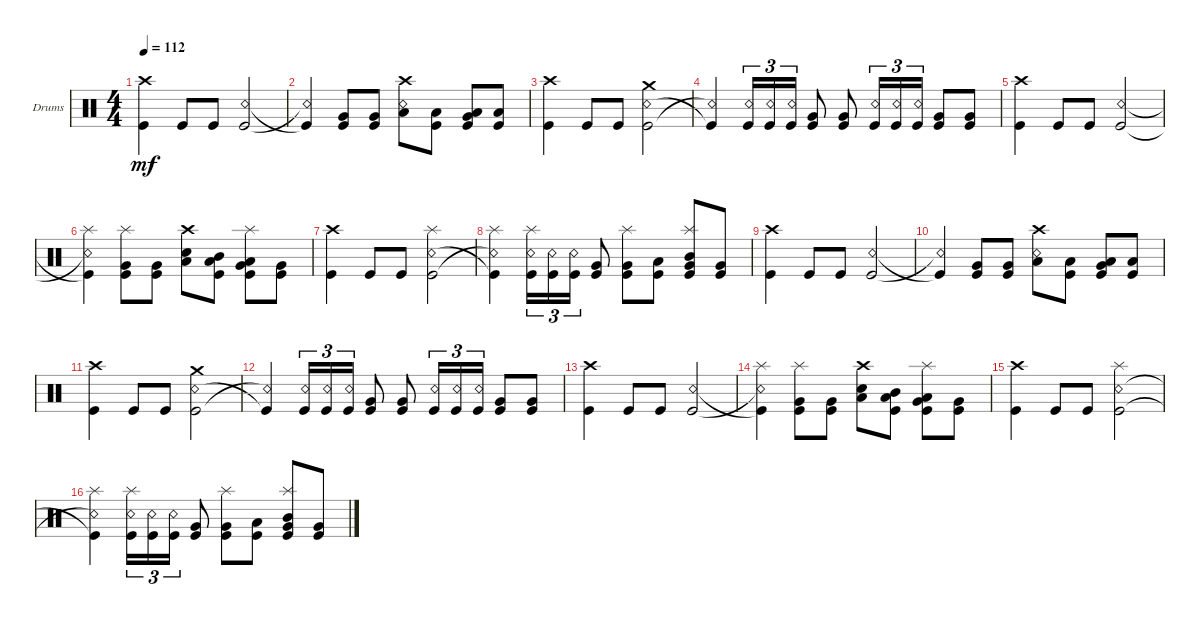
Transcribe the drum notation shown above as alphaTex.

\defaultSystemsLayout 4
\bracketExtendMode groupsimilarinstruments
\firstSystemTrackNameOrientation horizontal
\otherSystemsTrackNameOrientation horizontal
\track ("Drumkit" "Drums") {instrument percussion}
\staff {score}
\articulation defaults
\ts (4 4)
\tempo 112
\clef neutral
\ks c
("Kick (hit)" "Crash high (hit)").4{dy mf} "Kick (hit)".8 "Kick (hit)".8 ("Snare (rim shot)" "Kick (hit)").2 |
("Kick (hit)"{t} "Snare (rim shot)"{t}).4 ("Kick (hit)" "Very Low Tom (hit)").8 ("Kick (hit)" "Very Low Tom (hit)").8 ("Snare (rim shot)" "Crash high (hit)" "Low Tom (hit)").8 ("Kick (hit)" "Low Tom (hit)").8 ("Kick (hit)" "Very Low Tom (hit)" "Low Tom (hit)").8 ("Kick (hit)" "Low Tom (hit)").8 |
("Kick (hit)" "Crash high (hit)").4 "Kick (hit)".8 "Kick (hit)".8 ("Snare (rim shot)" "Kick (hit)" "Crash medium (hit)").2 |
("Kick (hit)"{t} "Snare (rim shot)"{t}).4 ("Snare (rim shot)" "Kick (hit)").16{tu (3 2)} ("Kick (hit)" "Snare (rim shot)").16{tu (3 2)} ("Kick (hit)" "Snare (rim shot)").16{tu (3 2)} ("Kick (hit)" "Very Low Tom (hit)").8 ("Kick (hit)" "Very Low Tom (hit)").8 ("Snare (rim shot)" "Kick (hit)").16{tu (3 2)} ("Snare (rim shot)" "Kick (hit)").16{tu (3 2)} ("Snare (rim shot)" "Kick (hit)").16{tu (3 2)} ("Kick (hit)" "Very Low Tom (hit)").8 ("Kick (hit)" "Very Low Tom (hit)").8 |
("Kick (hit)" "Crash high (hit)").4 "Kick (hit)".8 "Kick (hit)".8 ("Snare (rim shot)" "Kick (hit)").2 |
("Kick (hit)"{t} "Snare (rim shot)"{t} "Splash (hit)").4 ("Kick (hit)" "Very Low Tom (hit)" "Splash (hit)").8 ("Kick (hit)" "Very Low Tom (hit)").8 ("Snare (hit) 2" "Crash high (hit)" "Low Tom (hit)").8 ("Kick (hit)" "Mid Tom (hit)" "Low Tom (hit)").8 ("Kick (hit)" "Very Low Tom (hit)" "Low Tom (hit)" "Splash (hit)").8 ("Kick (hit)" "Very Low Tom (hit)").8 |
("Kick (hit)" "Crash high (hit)").4 "Kick (hit)".8 "Kick (hit)".8 ("Snare (rim shot)" "Kick (hit)" "Splash (hit)").2 |
("Kick (hit)"{t} "Snare (rim shot)"{t} "Splash (hit)").4 ("Snare (rim shot)" "Kick (hit)" "Splash (hit)").16{tu (3 2)} ("Kick (hit)" "Snare (rim shot)").16{tu (3 2)} ("Kick (hit)" "Snare (rim shot)").16{tu (3 2)} ("Kick (hit)" "Very Low Tom (hit)").8 ("Kick (hit)" "Very Low Tom (hit)" "Splash (hit)").8 ("Kick (hit)" "Low Tom (hit)").8 ("Kick (hit)" "Very Low Tom (hit)" "Mid Tom (hit)" "Splash (hit)").8 ("Kick (hit)" "Very Low Tom (hit)").8 |
("Kick (hit)" "Crash high (hit)").4 "Kick (hit)".8 "Kick (hit)".8 ("Snare (rim shot)" "Kick (hit)").2 |
("Kick (hit)"{t} "Snare (rim shot)"{t}).4 ("Kick (hit)" "Very Low Tom (hit)").8 ("Kick (hit)" "Very Low Tom (hit)").8 ("Snare (rim shot)" "Crash high (hit)" "Low Tom (hit)").8 ("Kick (hit)" "Low Tom (hit)").8 ("Kick (hit)" "Very Low Tom (hit)" "Low Tom (hit)").8 ("Kick (hit)" "Low Tom (hit)").8 |
("Kick (hit)" "Crash high (hit)").4 "Kick (hit)".8 "Kick (hit)".8 ("Snare (rim shot)" "Kick (hit)" "Crash medium (hit)").2 |
("Kick (hit)"{t} "Snare (rim shot)"{t}).4 ("Snare (rim shot)" "Kick (hit)").16{tu (3 2)} ("Kick (hit)" "Snare (rim shot)").16{tu (3 2)} ("Kick (hit)" "Snare (rim shot)").16{tu (3 2)} ("Kick (hit)" "Very Low Tom (hit)").8 ("Kick (hit)" "Very Low Tom (hit)").8 ("Snare (rim shot)" "Kick (hit)").16{tu (3 2)} ("Snare (rim shot)" "Kick (hit)").16{tu (3 2)} ("Snare (rim shot)" "Kick (hit)").16{tu (3 2)} ("Kick (hit)" "Very Low Tom (hit)").8 ("Kick (hit)" "Very Low Tom (hit)").8 |
("Kick (hit)" "Crash high (hit)").4 "Kick (hit)".8 "Kick (hit)".8 ("Snare (rim shot)" "Kick (hit)").2 |
("Kick (hit)"{t} "Snare (rim shot)"{t} "Splash (hit)").4 ("Kick (hit)" "Very Low Tom (hit)" "Splash (hit)").8 ("Kick (hit)" "Very Low Tom (hit)").8 ("Snare (hit) 2" "Crash high (hit)" "Low Tom (hit)").8 ("Kick (hit)" "Mid Tom (hit)" "Low Tom (hit)").8 ("Kick (hit)" "Very Low Tom (hit)" "Low Tom (hit)" "Splash (hit)").8 ("Kick (hit)" "Very Low Tom (hit)").8 |
("Kick (hit)" "Crash high (hit)").4 "Kick (hit)".8 "Kick (hit)".8 ("Snare (rim shot)" "Kick (hit)" "Splash (hit)").2 |
("Kick (hit)"{t} "Snare (rim shot)"{t} "Splash (hit)").4 ("Snare (rim shot)" "Kick (hit)" "Splash (hit)").16{tu (3 2)} ("Kick (hit)" "Snare (rim shot)").16{tu (3 2)} ("Kick (hit)" "Snare (rim shot)").16{tu (3 2)} ("Kick (hit)" "Very Low Tom (hit)").8 ("Kick (hit)" "Very Low Tom (hit)" "Splash (hit)").8 ("Kick (hit)" "Low Tom (hit)").8 ("Kick (hit)" "Very Low Tom (hit)" "Mid Tom (hit)" "Splash (hit)").8 ("Kick (hit)" "Very Low Tom (hit)").8
